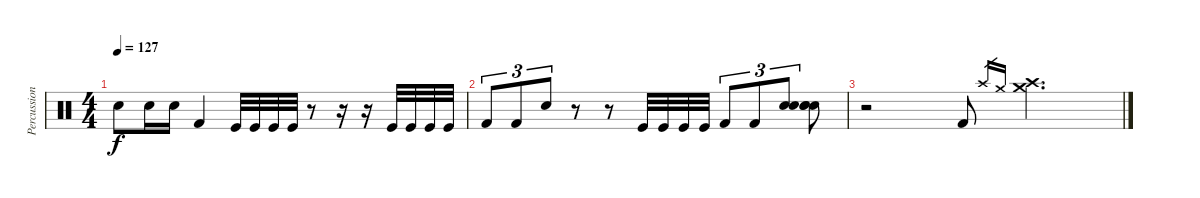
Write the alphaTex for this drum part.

\track ("Percussion" "Percussion") {instrument percussion}
\staff {score}
\articulation defaults
\ts (4 4)
\tempo 127
\clef neutral
\ks c "Snare (hit) 2".8{dy f} "Snare (hit) 2".16 "Snare (hit) 2".16 "Kick (hit) 2".4 "Kick (hit)".32 "Kick (hit)".32 "Kick (hit)".32 "Kick (hit)".32
r.8 r.16 r.16 "Kick (hit)".32 "Kick (hit)".32 "Kick (hit)".32 "Kick (hit)".32 |
"Kick (hit) 2".8{tu (3 2)} "Kick (hit) 2".8{tu (3 2)} "Electric Snare (hit)".8{tu (3 2)} r.8 r.8 "Kick (hit)".32 "Kick (hit)".32 "Kick (hit)".32 "Kick (hit)".32 "Kick (hit) 2".8{tu (3 2)} "Kick (hit) 2".8{tu (3 2)} ("Snare (hit) 2" "Snare (hit) 2").8{tu (3 2)} ("Electric Snare (hit)" "Electric Snare (hit)" "Snare (hit) 2").8 |
r.2 "Kick (hit) 2".8 "Crash high (hit)".16{gr} "Crash medium (hit)".16{gr} ("Crash medium (hit)" "Crash high (hit)").4{d}
